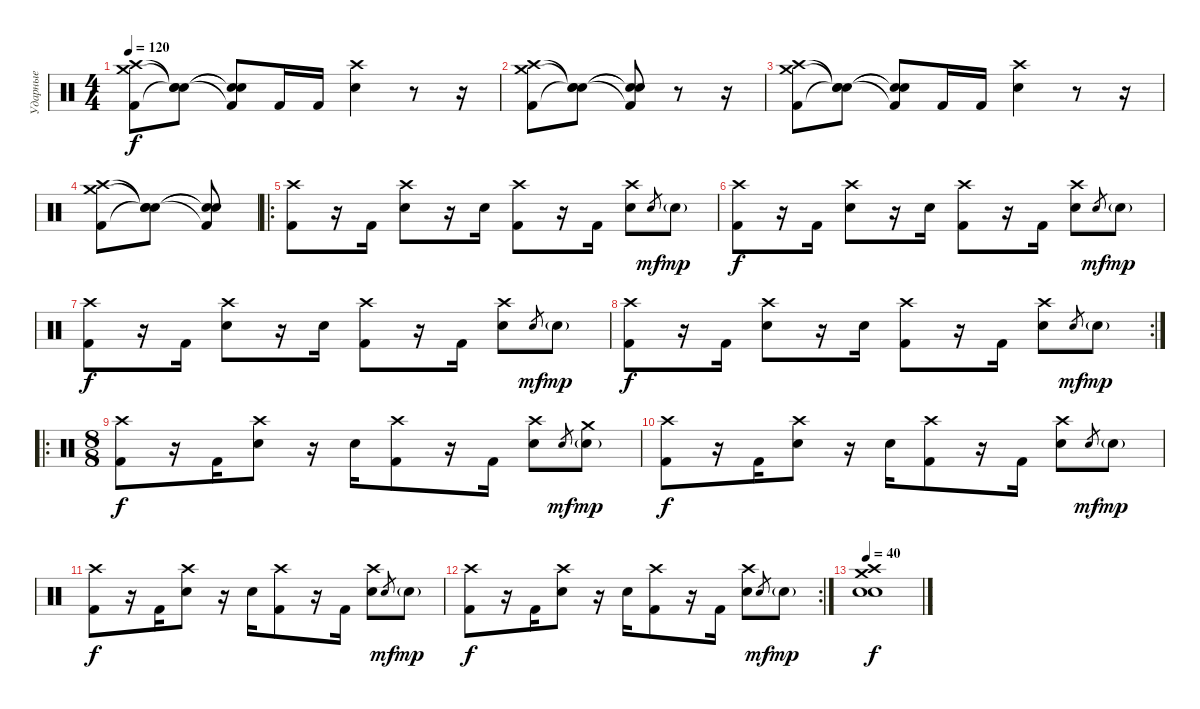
\track ("Ударные" "Ударные") {instrument percussion}
\staff {score}
\articulation defaults
\ts (4 4)
\tempo 120
\clef neutral
\ks c
("Crash high (hit)" "Kick (hit) 2" "Crash medium (hit)").8{dy f} ("Snare (hit)"{t} "Snare (hit)"{t} "Snare (hit)"{t}).8 ("Snare (hit)"{t} "Kick (hit) 2"{t} "Snare (hit)"{t}).8 "Kick (hit) 2".16 "Kick (hit) 2".16 ("Crash high (hit)" "Snare (hit) 2").4 r.8 r.16 |
("Crash high (hit)" "Kick (hit) 2" "Crash medium (hit)").8 ("Snare (hit)"{t} "Snare (hit)"{t} "Snare (hit)"{t}).8 ("Snare (hit)"{t} "Kick (hit) 2"{t} "Snare (hit)"{t}).8 r.8 r.16 |
("Crash high (hit)" "Kick (hit) 2" "Crash medium (hit)").8 ("Snare (hit)"{t} "Snare (hit)"{t} "Snare (hit)"{t}).8 ("Snare (hit)"{t} "Kick (hit) 2"{t} "Snare (hit)"{t}).8 "Kick (hit) 2".16 "Kick (hit) 2".16 ("Crash high (hit)" "Snare (hit) 2").4 r.8 r.16 |
("Crash high (hit)" "Kick (hit) 2" "Crash medium (hit)").8 ("Snare (hit)"{t} "Snare (hit)"{t} "Snare (hit)"{t}).8 ("Snare (hit)"{t} "Kick (hit) 2"{t} "Snare (hit)"{t}).8 |
\ro
("Crash high (hit)" "Kick (hit) 2").8 r.16 "Kick (hit) 2".16 ("Crash high (hit)" "Electric Snare (hit)").8 r.16 "Electric Snare (hit)".16 ("Crash high (hit)" "Kick (hit) 2").8 r.16 "Kick (hit) 2".16 ("Crash high (hit)" "Electric Snare (hit)").8 "Electric Snare (hit)".8{gr dy mf} "Electric Snare (hit)"{g}.8{dy mp} |
("Crash high (hit)" "Kick (hit) 2").8{dy f} r.16 "Kick (hit) 2".16 ("Crash high (hit)" "Electric Snare (hit)").8 r.16 "Electric Snare (hit)".16 ("Crash high (hit)" "Kick (hit) 2").8 r.16 "Kick (hit) 2".16 ("Crash high (hit)" "Electric Snare (hit)").8 "Electric Snare (hit)".8{gr dy mf} "Electric Snare (hit)"{g}.8{dy mp} |
("Crash high (hit)" "Kick (hit) 2").8{dy f} r.16 "Kick (hit) 2".16 ("Crash high (hit)" "Electric Snare (hit)").8 r.16 "Electric Snare (hit)".16 ("Crash high (hit)" "Kick (hit) 2").8 r.16 "Kick (hit) 2".16 ("Crash high (hit)" "Electric Snare (hit)").8 "Electric Snare (hit)".8{gr dy mf} "Electric Snare (hit)"{g}.8{dy mp} |
\rc 2
("Crash high (hit)" "Kick (hit) 2").8{dy f} r.16 "Kick (hit) 2".16 ("Crash high (hit)" "Electric Snare (hit)").8 r.16 "Electric Snare (hit)".16 ("Crash high (hit)" "Kick (hit) 2").8 r.16 "Kick (hit) 2".16 ("Crash high (hit)" "Electric Snare (hit)").8 "Electric Snare (hit)".8{gr dy mf} "Electric Snare (hit)"{g}.8{dy mp} |
\ro
\ts (8 8)
("Crash high (hit)" "Kick (hit) 2").8{dy f} r.16 "Kick (hit) 2".16 ("Crash high (hit)" "Electric Snare (hit)").8 r.16 "Electric Snare (hit)".16 ("Crash high (hit)" "Kick (hit) 2").8 r.16 "Kick (hit) 2".16 ("Crash high (hit)" "Electric Snare (hit)").8 "Electric Snare (hit)".8{gr dy mf} ("Crash medium (hit)" "Electric Snare (hit)"{g}).8{dy mp} |
("Crash high (hit)" "Kick (hit) 2").8{dy f} r.16 "Kick (hit) 2".16 ("Crash high (hit)" "Electric Snare (hit)").8 r.16 "Electric Snare (hit)".16 ("Crash high (hit)" "Kick (hit) 2").8 r.16 "Kick (hit) 2".16 ("Crash high (hit)" "Electric Snare (hit)").8 "Electric Snare (hit)".8{gr dy mf} "Electric Snare (hit)"{g}.8{dy mp} |
("Crash high (hit)" "Kick (hit) 2").8{dy f} r.16 "Kick (hit) 2".16 ("Crash high (hit)" "Electric Snare (hit)").8 r.16 "Electric Snare (hit)".16 ("Crash high (hit)" "Kick (hit) 2").8 r.16 "Kick (hit) 2".16 ("Crash high (hit)" "Electric Snare (hit)").8 "Electric Snare (hit)".8{gr dy mf} "Electric Snare (hit)"{g}.8{dy mp} |
\rc 2
("Crash high (hit)" "Kick (hit) 2").8{dy f} r.16 "Kick (hit) 2".16 ("Crash high (hit)" "Electric Snare (hit)").8 r.16 "Electric Snare (hit)".16 ("Crash high (hit)" "Kick (hit) 2").8 r.16 "Kick (hit) 2".16 ("Crash high (hit)" "Electric Snare (hit)").8 "Electric Snare (hit)".8{gr dy mf} "Electric Snare (hit)"{g}.8{dy mp} |
\tempo 40
("Crash high (hit)" "Snare (hit) 2" "Electric Snare (hit)" "Crash medium (hit)").1{dy f}
